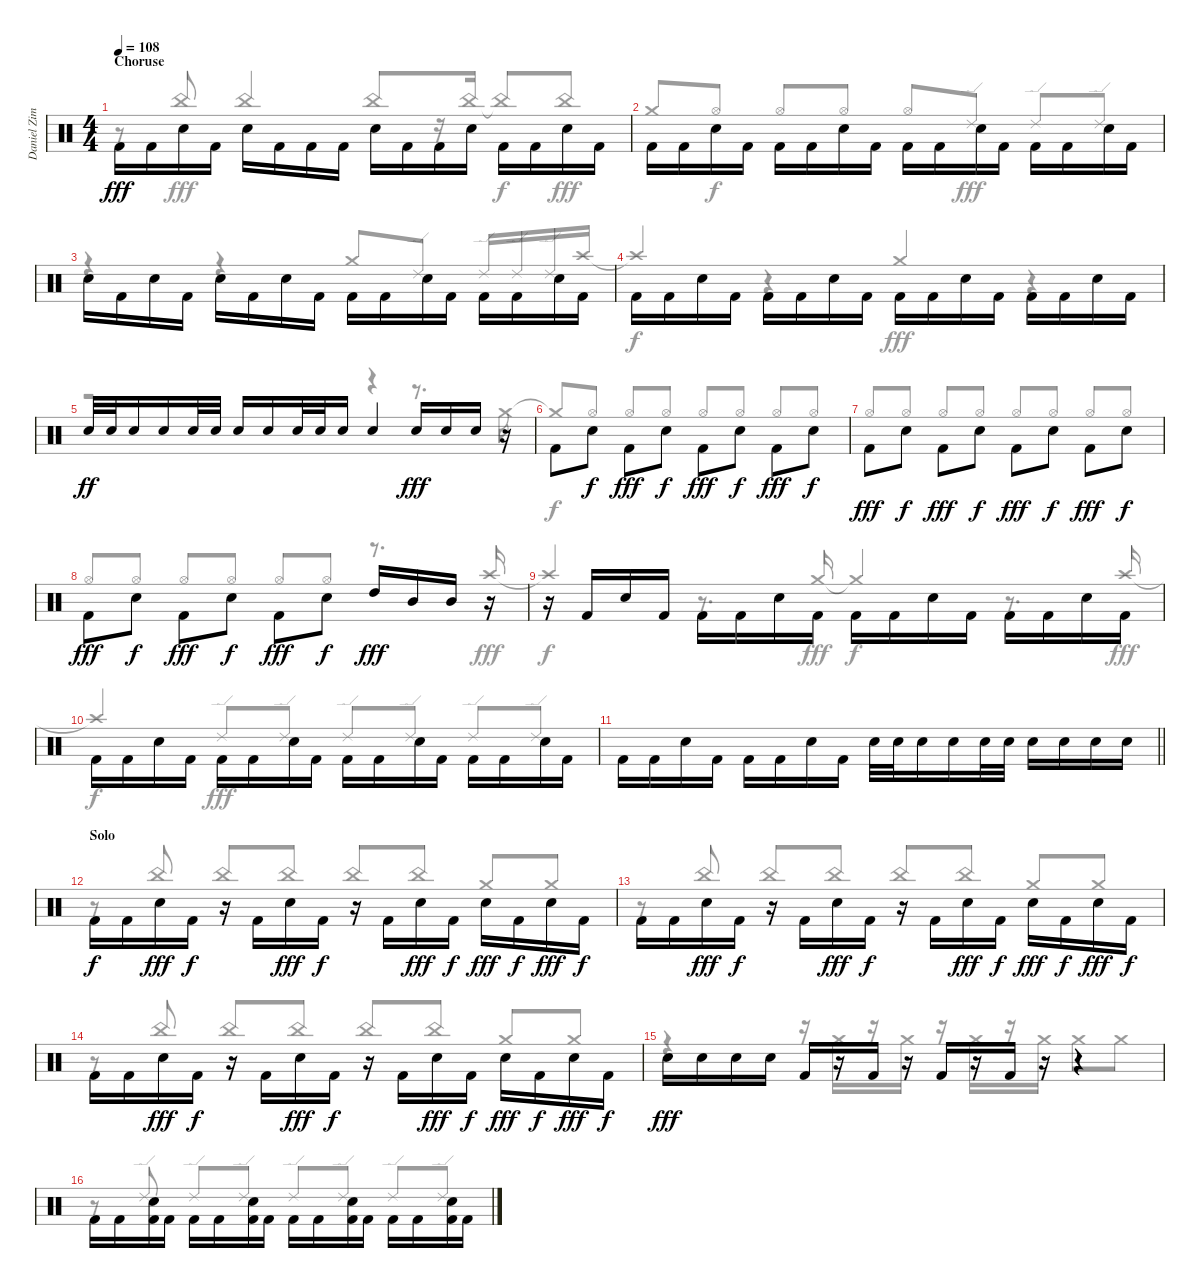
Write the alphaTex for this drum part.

\track ("Daniel Zimmermann Drums" "Daniel Zim") {instrument percussion}
\staff {score}
\articulation defaults
\voice
\ts (4 4)
\section ("" "Choruse")
\tempo 108
\clef neutral
\ks c "Kick (hit) 2".16{dy fff beam Down} "Kick (hit) 2".16{beam Down} "Snare (hit) 2".16{beam Down} "Kick (hit) 2".16{beam Down} "Snare (hit) 2".16{beam Down} "Kick (hit) 2".16{beam Down} "Kick (hit) 2".16{beam Down} "Kick (hit) 2".16{beam Down} "Snare (hit) 2".16{beam Down} "Kick (hit) 2".16{beam Down} "Kick (hit) 2".16{beam Down} "Snare (hit) 2".16{beam Down} "Kick (hit) 2".16{beam Down} "Kick (hit) 2".16{beam Down} "Snare (hit) 2".16{beam Down} "Kick (hit) 2".16{beam Down}
|
"Kick (hit) 2".16{beam Down} "Kick (hit) 2".16{beam Down} "Snare (hit) 2".16{beam Down} "Kick (hit) 2".16{beam Down} "Kick (hit) 2".16{beam Down} "Kick (hit) 2".16{beam Down} "Snare (hit) 2".16{beam Down} "Kick (hit) 2".16{beam Down} "Kick (hit) 2".16{beam Down} "Kick (hit) 2".16{beam Down} "Snare (hit) 2".16{beam Down} "Kick (hit) 2".16{beam Down} "Kick (hit) 2".16{beam Down} "Kick (hit) 2".16{beam Down} "Snare (hit) 2".16{beam Down} "Kick (hit) 2".16{beam Down} |
"Snare (hit) 2".16{beam Down} "Kick (hit) 2".16{beam Down} "Snare (hit) 2".16{beam Down} "Kick (hit) 2".16{beam Down} "Snare (hit) 2".16{beam Down} "Kick (hit) 2".16{beam Down} "Snare (hit) 2".16{beam Down} "Kick (hit) 2".16{beam Down} "Kick (hit) 2".16{beam Down} "Kick (hit) 2".16{beam Down} "Snare (hit) 2".16{beam Down} "Kick (hit) 2".16{beam Down} "Kick (hit) 2".16{beam Down} "Kick (hit) 2".16{beam Down} "Snare (hit) 2".16{beam Down} "Kick (hit) 2".16{beam Down} |
"Kick (hit) 2".16{beam Down} "Kick (hit) 2".16{beam Down} "Snare (hit) 2".16{beam Down} "Kick (hit) 2".16{beam Down} "Kick (hit) 2".16{beam Down} "Kick (hit) 2".16{beam Down} "Snare (hit) 2".16{beam Down} "Kick (hit) 2".16{beam Down} "Kick (hit) 2".16{beam Down} "Kick (hit) 2".16{beam Down} "Snare (hit) 2".16{beam Down} "Kick (hit) 2".16{beam Down} "Kick (hit) 2".16{beam Down} "Kick (hit) 2".16{beam Down} "Snare (hit) 2".16{beam Down} "Kick (hit) 2".16{beam Down} |
"Snare (hit) 2".32{dy ff} "Snare (hit) 2".32 "Snare (hit) 2".16 "Snare (hit) 2".16 "Snare (hit) 2".32 "Snare (hit) 2".32 "Snare (hit) 2".16 "Snare (hit) 2".16 "Snare (hit) 2".32 "Snare (hit) 2".32 "Snare (hit) 2".16 "Snare (hit) 2".4 "Snare (hit) 2".16{dy fff} "Snare (hit) 2".16 "Snare (hit) 2".16 r.16 |
"Kick (hit) 2".8{beam Down} "Snare (hit) 2".8{dy f beam Down} "Kick (hit) 2".8{dy fff beam Down} "Snare (hit) 2".8{dy f beam Down} "Kick (hit) 2".8{dy fff beam Down} "Snare (hit) 2".8{dy f beam Down} "Kick (hit) 2".8{dy fff beam Down} "Snare (hit) 2".8{dy f beam Down} |
"Kick (hit) 2".8{dy fff beam Down} "Snare (hit) 2".8{dy f beam Down} "Kick (hit) 2".8{dy fff beam Down} "Snare (hit) 2".8{dy f beam Down} "Kick (hit) 2".8{dy fff beam Down} "Snare (hit) 2".8{dy f beam Down} "Kick (hit) 2".8{dy fff beam Down} "Snare (hit) 2".8{dy f beam Down} |
"Kick (hit) 2".8{dy fff beam Down} "Snare (hit) 2".8{dy f beam Down} "Kick (hit) 2".8{dy fff beam Down} "Snare (hit) 2".8{dy f beam Down} "Kick (hit) 2".8{dy fff beam Down} "Snare (hit) 2".8{dy f beam Down} "High Tom (hit)".16{dy fff} "Mid Tom (hit)".16 "Mid Tom (hit)".16 r.16 |
r.16 "Kick (hit) 2".16 "Snare (hit) 2".16 "Kick (hit) 2".16 "Kick (hit) 2".16{beam Down} "Kick (hit) 2".16{beam Down} "Snare (hit) 2".16{beam Down} "Kick (hit) 2".16{beam Down} "Kick (hit) 2".16{beam Down} "Kick (hit) 2".16{beam Down} "Snare (hit) 2".16{beam Down} "Kick (hit) 2".16{beam Down} "Kick (hit) 2".16{beam Down} "Kick (hit) 2".16{beam Down} "Snare (hit) 2".16{beam Down} "Kick (hit) 2".16{beam Down} |
"Kick (hit) 2".16{beam Down} "Kick (hit) 2".16{beam Down} "Snare (hit) 2".16{beam Down} "Kick (hit) 2".16{beam Down} "Kick (hit) 2".16{beam Down} "Kick (hit) 2".16{beam Down} "Snare (hit) 2".16{beam Down} "Kick (hit) 2".16{beam Down} "Kick (hit) 2".16{beam Down} "Kick (hit) 2".16{beam Down} "Snare (hit) 2".16{beam Down} "Kick (hit) 2".16{beam Down} "Kick (hit) 2".16{beam Down} "Kick (hit) 2".16{beam Down} "Snare (hit) 2".16{beam Down} "Kick (hit) 2".16{beam Down} |
\barLineRight lightlight "Kick (hit) 2".16{beam Down} "Kick (hit) 2".16{beam Down} "Snare (hit) 2".16{beam Down} "Kick (hit) 2".16{beam Down} "Kick (hit) 2".16{beam Down} "Kick (hit) 2".16{beam Down} "Snare (hit) 2".16{beam Down} "Kick (hit) 2".16{beam Down} "Snare (hit) 2".32 "Snare (hit) 2".32 "Snare (hit) 2".16 "Snare (hit) 2".16 "Snare (hit) 2".32 "Snare (hit) 2".32 "Snare (hit) 2".16 "Snare (hit) 2".16 "Snare (hit) 2".16 "Snare (hit) 2".16
|
\section ("" "Solo ")
"Kick (hit) 2".16{dy f beam Down} "Kick (hit) 2".16{beam Down} "Snare (hit) 2".16{dy fff beam Down} "Kick (hit) 2".16{dy f beam Down} r.16 "Kick (hit) 2".16{beam Down} "Snare (hit) 2".16{dy fff beam Down} "Kick (hit) 2".16{dy f beam Down} r.16 "Kick (hit) 2".16{beam Down} "Snare (hit) 2".16{dy fff beam Down} "Kick (hit) 2".16{dy f beam Down} "Snare (hit) 2".16{dy fff beam Down} "Kick (hit) 2".16{dy f beam Down} "Snare (hit) 2".16{dy fff beam Down} "Kick (hit) 2".16{dy f beam Down} |
"Kick (hit) 2".16{beam Down} "Kick (hit) 2".16{beam Down} "Snare (hit) 2".16{dy fff beam Down} "Kick (hit) 2".16{dy f beam Down} r.16 "Kick (hit) 2".16{beam Down} "Snare (hit) 2".16{dy fff beam Down} "Kick (hit) 2".16{dy f beam Down} r.16 "Kick (hit) 2".16{beam Down} "Snare (hit) 2".16{dy fff beam Down} "Kick (hit) 2".16{dy f beam Down} "Snare (hit) 2".16{dy fff beam Down} "Kick (hit) 2".16{dy f beam Down} "Snare (hit) 2".16{dy fff beam Down} "Kick (hit) 2".16{dy f beam Down} |
"Kick (hit) 2".16{beam Down} "Kick (hit) 2".16{beam Down} "Snare (hit) 2".16{dy fff beam Down} "Kick (hit) 2".16{dy f beam Down} r.16 "Kick (hit) 2".16{beam Down} "Snare (hit) 2".16{dy fff beam Down} "Kick (hit) 2".16{dy f beam Down} r.16 "Kick (hit) 2".16{beam Down} "Snare (hit) 2".16{dy fff beam Down} "Kick (hit) 2".16{dy f beam Down} "Snare (hit) 2".16{dy fff beam Down} "Kick (hit) 2".16{dy f beam Down} "Snare (hit) 2".16{dy fff beam Down} "Kick (hit) 2".16{dy f beam Down} |
"Snare (hit) 2".16{dy fff beam Down} "Snare (hit) 2".16{beam Down} "Snare (hit) 2".16{beam Down} "Snare (hit) 2".16{beam Down} "Kick (hit) 2".16 r.16 "Kick (hit) 2".16 r.16 "Kick (hit) 2".16 r.16 "Kick (hit) 2".16 r.16 r.4 |
"Kick (hit) 2".16{beam Down} "Kick (hit) 2".16{beam Down} ("Snare (hit) 2" "Kick (hit) 2").16{beam Down} "Kick (hit) 2".16{beam Down} "Kick (hit) 2".16{beam Down} "Kick (hit) 2".16{beam Down} ("Snare (hit) 2" "Kick (hit) 2").16{beam Down} "Kick (hit) 2".16{beam Down} "Kick (hit) 2".16{beam Down} "Kick (hit) 2".16{beam Down} ("Snare (hit) 2" "Kick (hit) 2").16{beam Down} "Kick (hit) 2".16{beam Down} "Kick (hit) 2".16{beam Down} "Kick (hit) 2".16{beam Down} ("Snare (hit) 2" "Kick (hit) 2").16{beam Down} "Kick (hit) 2".16{beam Down}
\voice
\clef neutral
\ottava regular
\simile none
\ks c
r.8{dy f} "China (hit)".8{dy fff beam Up} "China (hit)".4{beam Up} "China (hit)".8{beam Up} r.16 "China (hit)".16{beam Up} "China (hit)"{t}.8{dy f beam Up} "China (hit)".8{dy fff beam Up} |
"Crash medium (hit)".8{beam Up} "Hi-Hat (open)".8{dy f beam Up} "Hi-Hat (open)".8{beam Up} "Hi-Hat (open)".8{beam Up} "Hi-Hat (open)".8{beam Up} "Ride (edge) 2".8{dy fff beam Up} "Ride (edge) 2".8{beam Up} "Ride (edge) 2".8{beam Up} |
r.4 r.4 "Crash medium (hit)".8{beam Up} "Ride (edge) 2".8{beam Up} "Ride (edge) 2".16{beam Up} "Ride (edge) 2".16{beam Up} "Ride (edge) 2".16{beam Up} "Crash high (hit)".16{beam Up} |
"Crash high (hit)"{t}.4{dy f beam Up} r.4 "Crash medium (hit)".4{dy fff beam Up} r.4 |
r.2 r.4 r.8{d} "Crash medium (hit)".16 |
"Crash medium (hit)"{t}.8{dy f beam Up} "Hi-Hat (open)".8{beam Up} "Hi-Hat (open)".8{beam Up} "Hi-Hat (open)".8{beam Up} "Hi-Hat (open)".8{beam Up} "Hi-Hat (open)".8{beam Up} "Hi-Hat (open)".8{beam Up} "Hi-Hat (open)".8{beam Up} |
"Hi-Hat (open)".8{beam Up} "Hi-Hat (open)".8{beam Up} "Hi-Hat (open)".8{beam Up} "Hi-Hat (open)".8{beam Up} "Hi-Hat (open)".8{beam Up} "Hi-Hat (open)".8{beam Up} "Hi-Hat (open)".8{beam Up} "Hi-Hat (open)".8{beam Up} |
"Hi-Hat (open)".8{beam Up} "Hi-Hat (open)".8{beam Up} "Hi-Hat (open)".8{beam Up} "Hi-Hat (open)".8{beam Up} "Hi-Hat (open)".8{beam Up} "Hi-Hat (open)".8{beam Up} r.8{d} "Crash high (hit)".16{dy fff beam Up} |
"Crash high (hit)"{t}.4{dy f beam Up} r.8{d} "Crash medium (hit)".16{dy fff beam Up} "Crash medium (hit)"{t}.4{dy f beam Up} r.8{d} "Crash high (hit)".16{dy fff beam Up} |
"Crash high (hit)"{t}.4{dy f beam Up} "Ride (edge) 2".8{dy fff beam Up} "Ride (edge) 2".8{beam Up} "Ride (edge) 2".8{beam Up} "Ride (edge) 2".8{beam Up} "Ride (edge) 2".8{beam Up} "Ride (edge) 2".8{beam Up} |
\barLineRight lightlight
|
r.8{beam Up} "China (hit)".8{beam Up} "China (hit)".8{beam Up} "China (hit)".8{beam Up} "China (hit)".8{beam Up} "China (hit)".8{beam Up} "Crash medium (hit)".8{beam Up} "Crash medium (hit)".8{beam Up} |
r.8{beam Up} "China (hit)".8{beam Up} "China (hit)".8{beam Up} "China (hit)".8{beam Up} "China (hit)".8{beam Up} "China (hit)".8{beam Up} "Crash medium (hit)".8{beam Up} "Crash medium (hit)".8{beam Up} |
r.8{beam Up} "China (hit)".8{beam Up} "China (hit)".8{beam Up} "China (hit)".8{beam Up} "China (hit)".8{beam Up} "China (hit)".8{beam Up} "Crash medium (hit)".8{beam Up} "Crash medium (hit)".8{beam Up} |
r.4 r.16 "Crash medium (hit)".16 r.16 "Crash medium (hit)".16 r.16 "Crash medium (hit)".16 r.16 "Crash medium (hit)".16 "Crash medium (hit)".8 "Crash medium (hit)".8 |
r.8 "Ride (edge) 2".8{beam Up} "Ride (edge) 2".8{beam Up} "Ride (edge) 2".8{beam Up} "Ride (edge) 2".8{beam Up} "Ride (edge) 2".8{beam Up} "Ride (edge) 2".8{beam Up} "Ride (edge) 2".8{beam Up}
